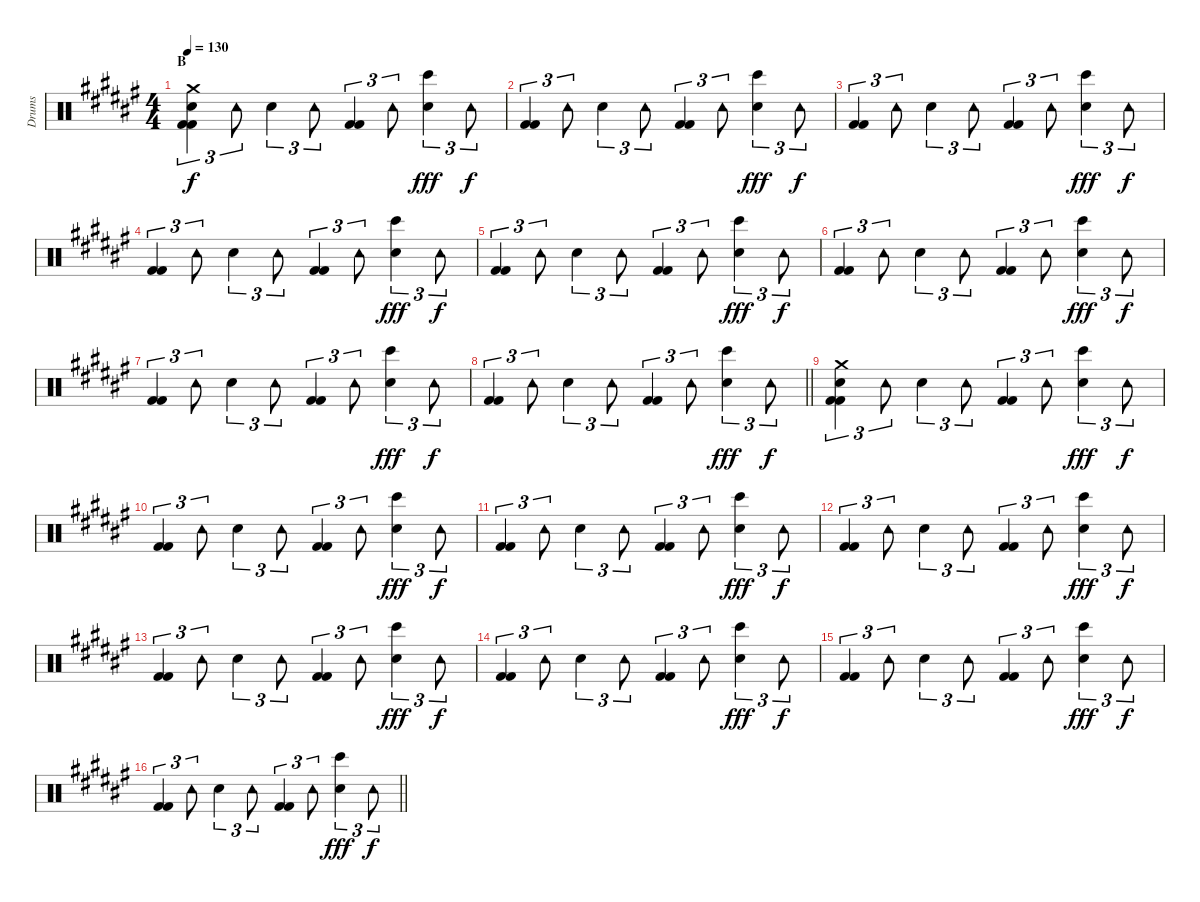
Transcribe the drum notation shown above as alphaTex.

\track ("Drums" "Drums") {instrument percussion}
\staff {score}
\articulation defaults
\ts (4 4)
\section ("" "B")
\tempo 130
\clef neutral
\ks d#minor
("Crash medium (hit)" "Snare (hit) 2" "Kick (hit) 2" "Kick (hit) 2").4{tu (3 2) dy f} "Tambourine (hit)".8{tu (3 2)} "Snare (hit) 2".4{tu (3 2)} "Tambourine (hit)".8{tu (3 2)} ("Kick (hit) 2" "Kick (hit) 2").4{tu (3 2)} "Tambourine (hit)".8{tu (3 2)} ("Bongo High (hit)" "Snare (hit) 2").4{tu (3 2) dy fff} "Tambourine (hit)".8{tu (3 2) dy f} |
("Kick (hit) 2" "Kick (hit) 2").4{tu (3 2)} "Tambourine (hit)".8{tu (3 2)} "Snare (hit) 2".4{tu (3 2)} "Tambourine (hit)".8{tu (3 2)} ("Kick (hit) 2" "Kick (hit) 2").4{tu (3 2)} "Tambourine (hit)".8{tu (3 2)} ("Bongo High (hit)" "Snare (hit) 2").4{tu (3 2) dy fff} "Tambourine (hit)".8{tu (3 2) dy f} |
("Kick (hit) 2" "Kick (hit) 2").4{tu (3 2)} "Tambourine (hit)".8{tu (3 2)} "Snare (hit) 2".4{tu (3 2)} "Tambourine (hit)".8{tu (3 2)} ("Kick (hit) 2" "Kick (hit) 2").4{tu (3 2)} "Tambourine (hit)".8{tu (3 2)} ("Bongo High (hit)" "Snare (hit) 2").4{tu (3 2) dy fff} "Tambourine (hit)".8{tu (3 2) dy f} |
("Kick (hit) 2" "Kick (hit) 2").4{tu (3 2)} "Tambourine (hit)".8{tu (3 2)} "Snare (hit) 2".4{tu (3 2)} "Tambourine (hit)".8{tu (3 2)} ("Kick (hit) 2" "Kick (hit) 2").4{tu (3 2)} "Tambourine (hit)".8{tu (3 2)} ("Bongo High (hit)" "Snare (hit) 2").4{tu (3 2) dy fff} "Tambourine (hit)".8{tu (3 2) dy f} |
("Kick (hit) 2" "Kick (hit) 2").4{tu (3 2)} "Tambourine (hit)".8{tu (3 2)} "Snare (hit) 2".4{tu (3 2)} "Tambourine (hit)".8{tu (3 2)} ("Kick (hit) 2" "Kick (hit) 2").4{tu (3 2)} "Tambourine (hit)".8{tu (3 2)} ("Bongo High (hit)" "Snare (hit) 2").4{tu (3 2) dy fff} "Tambourine (hit)".8{tu (3 2) dy f} |
("Kick (hit) 2" "Kick (hit) 2").4{tu (3 2)} "Tambourine (hit)".8{tu (3 2)} "Snare (hit) 2".4{tu (3 2)} "Tambourine (hit)".8{tu (3 2)} ("Kick (hit) 2" "Kick (hit) 2").4{tu (3 2)} "Tambourine (hit)".8{tu (3 2)} ("Bongo High (hit)" "Snare (hit) 2").4{tu (3 2) dy fff} "Tambourine (hit)".8{tu (3 2) dy f} |
("Kick (hit) 2" "Kick (hit) 2").4{tu (3 2)} "Tambourine (hit)".8{tu (3 2)} "Snare (hit) 2".4{tu (3 2)} "Tambourine (hit)".8{tu (3 2)} ("Kick (hit) 2" "Kick (hit) 2").4{tu (3 2)} "Tambourine (hit)".8{tu (3 2)} ("Bongo High (hit)" "Snare (hit) 2").4{tu (3 2) dy fff} "Tambourine (hit)".8{tu (3 2) dy f} |
\barLineRight lightlight
("Kick (hit) 2" "Kick (hit) 2").4{tu (3 2)} "Tambourine (hit)".8{tu (3 2)} "Snare (hit) 2".4{tu (3 2)} "Tambourine (hit)".8{tu (3 2)} ("Kick (hit) 2" "Kick (hit) 2").4{tu (3 2)} "Tambourine (hit)".8{tu (3 2)} ("Bongo High (hit)" "Snare (hit) 2").4{tu (3 2) dy fff} "Tambourine (hit)".8{tu (3 2) dy f} |
("Crash medium (hit)" "Snare (hit) 2" "Kick (hit) 2" "Kick (hit) 2").4{tu (3 2)} "Tambourine (hit)".8{tu (3 2)} "Snare (hit) 2".4{tu (3 2)} "Tambourine (hit)".8{tu (3 2)} ("Kick (hit) 2" "Kick (hit) 2").4{tu (3 2)} "Tambourine (hit)".8{tu (3 2)} ("Bongo High (hit)" "Snare (hit) 2").4{tu (3 2) dy fff} "Tambourine (hit)".8{tu (3 2) dy f} |
("Kick (hit) 2" "Kick (hit) 2").4{tu (3 2)} "Tambourine (hit)".8{tu (3 2)} "Snare (hit) 2".4{tu (3 2)} "Tambourine (hit)".8{tu (3 2)} ("Kick (hit) 2" "Kick (hit) 2").4{tu (3 2)} "Tambourine (hit)".8{tu (3 2)} ("Bongo High (hit)" "Snare (hit) 2").4{tu (3 2) dy fff} "Tambourine (hit)".8{tu (3 2) dy f} |
("Kick (hit) 2" "Kick (hit) 2").4{tu (3 2)} "Tambourine (hit)".8{tu (3 2)} "Snare (hit) 2".4{tu (3 2)} "Tambourine (hit)".8{tu (3 2)} ("Kick (hit) 2" "Kick (hit) 2").4{tu (3 2)} "Tambourine (hit)".8{tu (3 2)} ("Bongo High (hit)" "Snare (hit) 2").4{tu (3 2) dy fff} "Tambourine (hit)".8{tu (3 2) dy f} |
("Kick (hit) 2" "Kick (hit) 2").4{tu (3 2)} "Tambourine (hit)".8{tu (3 2)} "Snare (hit) 2".4{tu (3 2)} "Tambourine (hit)".8{tu (3 2)} ("Kick (hit) 2" "Kick (hit) 2").4{tu (3 2)} "Tambourine (hit)".8{tu (3 2)} ("Bongo High (hit)" "Snare (hit) 2").4{tu (3 2) dy fff} "Tambourine (hit)".8{tu (3 2) dy f} |
("Kick (hit) 2" "Kick (hit) 2").4{tu (3 2)} "Tambourine (hit)".8{tu (3 2)} "Snare (hit) 2".4{tu (3 2)} "Tambourine (hit)".8{tu (3 2)} ("Kick (hit) 2" "Kick (hit) 2").4{tu (3 2)} "Tambourine (hit)".8{tu (3 2)} ("Bongo High (hit)" "Snare (hit) 2").4{tu (3 2) dy fff} "Tambourine (hit)".8{tu (3 2) dy f} |
("Kick (hit) 2" "Kick (hit) 2").4{tu (3 2)} "Tambourine (hit)".8{tu (3 2)} "Snare (hit) 2".4{tu (3 2)} "Tambourine (hit)".8{tu (3 2)} ("Kick (hit) 2" "Kick (hit) 2").4{tu (3 2)} "Tambourine (hit)".8{tu (3 2)} ("Bongo High (hit)" "Snare (hit) 2").4{tu (3 2) dy fff} "Tambourine (hit)".8{tu (3 2) dy f} |
("Kick (hit) 2" "Kick (hit) 2").4{tu (3 2)} "Tambourine (hit)".8{tu (3 2)} "Snare (hit) 2".4{tu (3 2)} "Tambourine (hit)".8{tu (3 2)} ("Kick (hit) 2" "Kick (hit) 2").4{tu (3 2)} "Tambourine (hit)".8{tu (3 2)} ("Bongo High (hit)" "Snare (hit) 2").4{tu (3 2) dy fff} "Tambourine (hit)".8{tu (3 2) dy f} |
\barLineRight lightlight
("Kick (hit) 2" "Kick (hit) 2").4{tu (3 2)} "Tambourine (hit)".8{tu (3 2)} "Snare (hit) 2".4{tu (3 2)} "Tambourine (hit)".8{tu (3 2)} ("Kick (hit) 2" "Kick (hit) 2").4{tu (3 2)} "Tambourine (hit)".8{tu (3 2)} ("Bongo High (hit)" "Snare (hit) 2").4{tu (3 2) dy fff} "Tambourine (hit)".8{tu (3 2) dy f}
